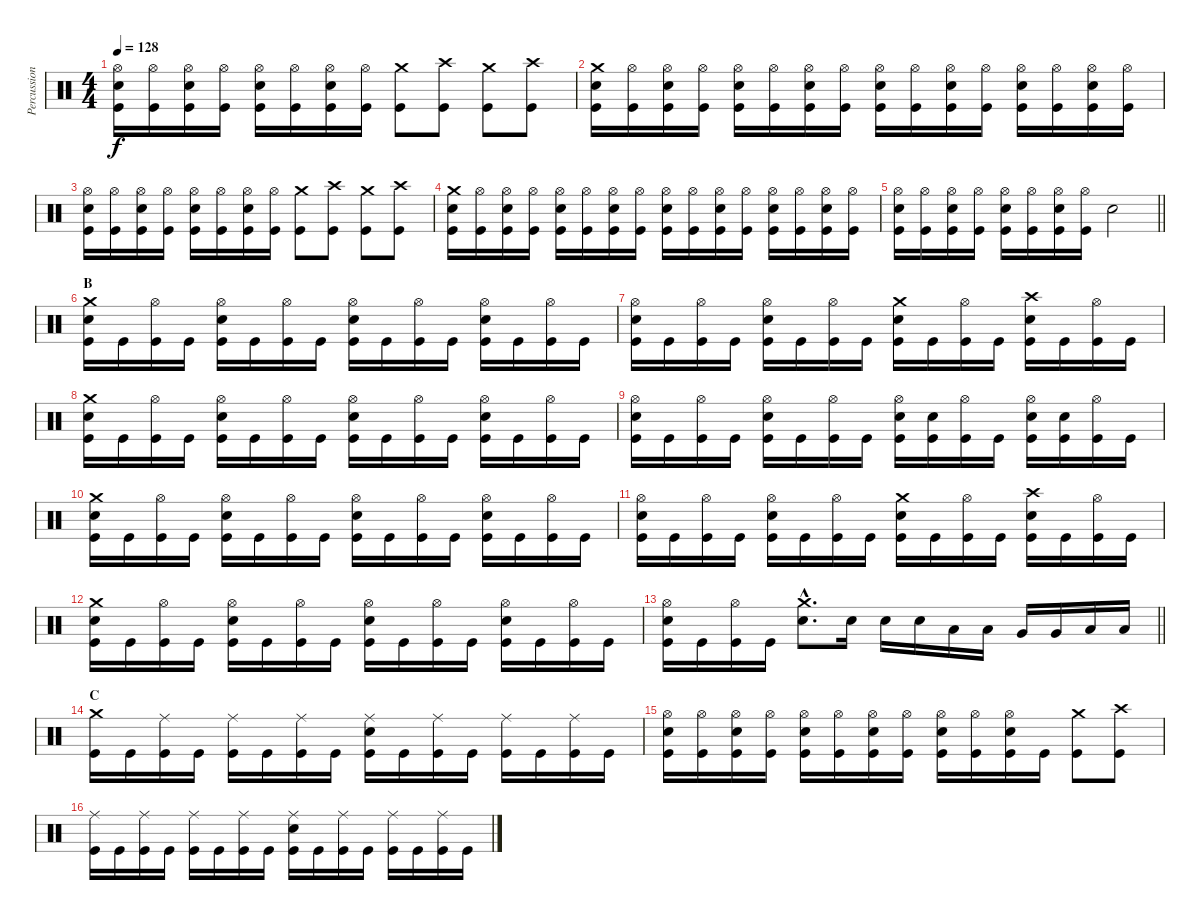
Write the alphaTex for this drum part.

\track ("Percussion" "Percussion") {instrument percussion}
\staff {score}
\articulation defaults
\ts (4 4)
\tempo 128
\clef neutral
\ks c
("Kick (hit)" "Snare (hit) 2" "Hi-Hat (open)").16{dy f} ("Kick (hit)" "Hi-Hat (open)").16 ("Kick (hit)" "Snare (hit) 2" "Hi-Hat (open)").16 ("Kick (hit)" "Hi-Hat (open)").16 ("Kick (hit)" "Snare (hit) 2" "Hi-Hat (open)").16 ("Kick (hit)" "Hi-Hat (open)").16 ("Kick (hit)" "Snare (hit) 2" "Hi-Hat (open)").16 ("Kick (hit)" "Hi-Hat (open)").16 ("Kick (hit)" "Crash medium (hit)").8 ("Kick (hit)" "Crash high (hit)").8 ("Kick (hit)" "Crash medium (hit)").8 ("Kick (hit)" "Crash high (hit)").8 |
("Kick (hit)" "Snare (hit) 2" "Crash medium (hit)").16 ("Kick (hit)" "Hi-Hat (open)").16 ("Kick (hit)" "Snare (hit) 2" "Hi-Hat (open)").16 ("Kick (hit)" "Hi-Hat (open)").16 ("Kick (hit)" "Snare (hit) 2" "Hi-Hat (open)").16 ("Kick (hit)" "Hi-Hat (open)").16 ("Kick (hit)" "Snare (hit) 2" "Hi-Hat (open)").16 ("Kick (hit)" "Hi-Hat (open)").16 ("Kick (hit)" "Snare (hit) 2" "Hi-Hat (open)").16 ("Kick (hit)" "Hi-Hat (open)").16 ("Kick (hit)" "Snare (hit) 2" "Hi-Hat (open)").16 ("Kick (hit)" "Hi-Hat (open)").16 ("Kick (hit)" "Snare (hit) 2" "Hi-Hat (open)").16 ("Kick (hit)" "Hi-Hat (open)").16 ("Kick (hit)" "Snare (hit) 2" "Hi-Hat (open)").16 ("Kick (hit)" "Hi-Hat (open)").16 |
("Kick (hit)" "Snare (hit) 2" "Hi-Hat (open)").16 ("Kick (hit)" "Hi-Hat (open)").16 ("Kick (hit)" "Snare (hit) 2" "Hi-Hat (open)").16 ("Kick (hit)" "Hi-Hat (open)").16 ("Kick (hit)" "Snare (hit) 2" "Hi-Hat (open)").16 ("Kick (hit)" "Hi-Hat (open)").16 ("Kick (hit)" "Snare (hit) 2" "Hi-Hat (open)").16 ("Kick (hit)" "Hi-Hat (open)").16 ("Kick (hit)" "Crash medium (hit)").8 ("Kick (hit)" "Crash high (hit)").8 ("Kick (hit)" "Crash medium (hit)").8 ("Kick (hit)" "Crash high (hit)").8 |
("Kick (hit)" "Snare (hit) 2" "Crash medium (hit)").16 ("Kick (hit)" "Hi-Hat (open)").16 ("Kick (hit)" "Snare (hit) 2" "Hi-Hat (open)").16 ("Kick (hit)" "Hi-Hat (open)").16 ("Kick (hit)" "Snare (hit) 2" "Hi-Hat (open)").16 ("Kick (hit)" "Hi-Hat (open)").16 ("Kick (hit)" "Snare (hit) 2" "Hi-Hat (open)").16 ("Kick (hit)" "Hi-Hat (open)").16 ("Kick (hit)" "Snare (hit) 2" "Hi-Hat (open)").16 ("Kick (hit)" "Hi-Hat (open)").16 ("Kick (hit)" "Snare (hit) 2" "Hi-Hat (open)").16 ("Kick (hit)" "Hi-Hat (open)").16 ("Kick (hit)" "Snare (hit) 2" "Hi-Hat (open)").16 ("Kick (hit)" "Hi-Hat (open)").16 ("Kick (hit)" "Snare (hit) 2" "Hi-Hat (open)").16 ("Kick (hit)" "Hi-Hat (open)").16 |
\barLineRight lightlight
("Kick (hit)" "Snare (hit) 2" "Hi-Hat (open)").16 ("Kick (hit)" "Hi-Hat (open)").16 ("Kick (hit)" "Snare (hit) 2" "Hi-Hat (open)").16 ("Kick (hit)" "Hi-Hat (open)").16 ("Kick (hit)" "Snare (hit) 2" "Hi-Hat (open)").16 ("Kick (hit)" "Hi-Hat (open)").16 ("Kick (hit)" "Snare (hit) 2" "Hi-Hat (open)").16 ("Kick (hit)" "Hi-Hat (open)").16 "Snare (hit) 2".2 |
\section ("" "B")
("Kick (hit)" "Snare (hit) 2" "Crash medium (hit)").16 "Kick (hit)".16 ("Kick (hit)" "Hi-Hat (open)").16 "Kick (hit)".16 ("Kick (hit)" "Snare (hit) 2" "Hi-Hat (open)").16 "Kick (hit)".16 ("Kick (hit)" "Hi-Hat (open)").16 "Kick (hit)".16 ("Kick (hit)" "Snare (hit) 2" "Hi-Hat (open)").16 "Kick (hit)".16 ("Kick (hit)" "Hi-Hat (open)").16 "Kick (hit)".16 ("Kick (hit)" "Snare (hit) 2" "Hi-Hat (open)").16 "Kick (hit)".16 ("Kick (hit)" "Hi-Hat (open)").16 "Kick (hit)".16 |
("Kick (hit)" "Snare (hit) 2" "Hi-Hat (open)").16 "Kick (hit)".16 ("Kick (hit)" "Hi-Hat (open)").16 "Kick (hit)".16 ("Kick (hit)" "Snare (hit) 2" "Hi-Hat (open)").16 "Kick (hit)".16 ("Kick (hit)" "Hi-Hat (open)").16 "Kick (hit)".16 ("Kick (hit)" "Snare (hit) 2" "Crash medium (hit)").16 "Kick (hit)".16 ("Kick (hit)" "Hi-Hat (open)").16 "Kick (hit)".16 ("Kick (hit)" "Snare (hit) 2" "Crash high (hit)").16 "Kick (hit)".16 ("Kick (hit)" "Hi-Hat (open)").16 "Kick (hit)".16 |
("Kick (hit)" "Snare (hit) 2" "Crash medium (hit)").16 "Kick (hit)".16 ("Kick (hit)" "Hi-Hat (open)").16 "Kick (hit)".16 ("Kick (hit)" "Snare (hit) 2" "Hi-Hat (open)").16 "Kick (hit)".16 ("Kick (hit)" "Hi-Hat (open)").16 "Kick (hit)".16 ("Kick (hit)" "Snare (hit) 2" "Hi-Hat (open)").16 "Kick (hit)".16 ("Kick (hit)" "Hi-Hat (open)").16 "Kick (hit)".16 ("Kick (hit)" "Snare (hit) 2" "Hi-Hat (open)").16 "Kick (hit)".16 ("Kick (hit)" "Hi-Hat (open)").16 "Kick (hit)".16 |
("Kick (hit)" "Snare (hit) 2" "Hi-Hat (open)").16 "Kick (hit)".16 ("Kick (hit)" "Hi-Hat (open)").16 "Kick (hit)".16 ("Kick (hit)" "Snare (hit) 2" "Hi-Hat (open)").16 "Kick (hit)".16 ("Kick (hit)" "Hi-Hat (open)").16 "Kick (hit)".16 ("Kick (hit)" "Snare (hit) 2" "Hi-Hat (open)").16 ("Kick (hit)" "Snare (hit) 2").16 ("Kick (hit)" "Hi-Hat (open)").16 "Kick (hit)".16 ("Kick (hit)" "Snare (hit) 2" "Hi-Hat (open)").16 ("Kick (hit)" "Snare (hit) 2").16 ("Kick (hit)" "Hi-Hat (open)").16 "Kick (hit)".16 |
("Kick (hit)" "Snare (hit) 2" "Crash medium (hit)").16 "Kick (hit)".16 ("Kick (hit)" "Hi-Hat (open)").16 "Kick (hit)".16 ("Kick (hit)" "Snare (hit) 2" "Hi-Hat (open)").16 "Kick (hit)".16 ("Kick (hit)" "Hi-Hat (open)").16 "Kick (hit)".16 ("Kick (hit)" "Snare (hit) 2" "Hi-Hat (open)").16 "Kick (hit)".16 ("Kick (hit)" "Hi-Hat (open)").16 "Kick (hit)".16 ("Kick (hit)" "Snare (hit) 2" "Hi-Hat (open)").16 "Kick (hit)".16 ("Kick (hit)" "Hi-Hat (open)").16 "Kick (hit)".16 |
("Kick (hit)" "Snare (hit) 2" "Hi-Hat (open)").16 "Kick (hit)".16 ("Kick (hit)" "Hi-Hat (open)").16 "Kick (hit)".16 ("Kick (hit)" "Snare (hit) 2" "Hi-Hat (open)").16 "Kick (hit)".16 ("Kick (hit)" "Hi-Hat (open)").16 "Kick (hit)".16 ("Kick (hit)" "Snare (hit) 2" "Crash medium (hit)").16 "Kick (hit)".16 ("Kick (hit)" "Hi-Hat (open)").16 "Kick (hit)".16 ("Kick (hit)" "Snare (hit) 2" "Crash high (hit)").16 "Kick (hit)".16 ("Kick (hit)" "Hi-Hat (open)").16 "Kick (hit)".16 |
("Kick (hit)" "Snare (hit) 2" "Crash medium (hit)").16 "Kick (hit)".16 ("Kick (hit)" "Hi-Hat (open)").16 "Kick (hit)".16 ("Kick (hit)" "Snare (hit) 2" "Hi-Hat (open)").16 "Kick (hit)".16 ("Kick (hit)" "Hi-Hat (open)").16 "Kick (hit)".16 ("Kick (hit)" "Snare (hit) 2" "Hi-Hat (open)").16 "Kick (hit)".16 ("Kick (hit)" "Hi-Hat (open)").16 "Kick (hit)".16 ("Kick (hit)" "Snare (hit) 2" "Hi-Hat (open)").16 "Kick (hit)".16 ("Kick (hit)" "Hi-Hat (open)").16 "Kick (hit)".16 |
\barLineRight lightlight
("Kick (hit)" "Snare (hit) 2" "Hi-Hat (open)").16 "Kick (hit)".16 ("Kick (hit)" "Hi-Hat (open)").16 "Kick (hit)".16 ("Snare (hit) 2"{hac} "Crash medium (hit)"{hac}).8{d} "Snare (hit) 2".16 "Snare (hit) 2".16 "Snare (hit) 2".16 "Low Tom (hit)".16 "Low Tom (hit)".16 "Very Low Tom (hit)".16 "Very Low Tom (hit)".16 "Low Floor Tom (hit)".16 "Low Floor Tom (hit)".16 |
\section ("" "C")
("Kick (hit)" "Crash medium (hit)").16 "Kick (hit)".16 ("Kick (hit)" "Ride (middle)").16 "Kick (hit)".16 ("Kick (hit)" "Ride (middle)").16 "Kick (hit)".16 ("Kick (hit)" "Ride (middle)").16 "Kick (hit)".16 ("Kick (hit)" "Snare (hit) 2" "Ride (middle)").16 "Kick (hit)".16 ("Kick (hit)" "Ride (middle)").16 "Kick (hit)".16 ("Kick (hit)" "Ride (middle)").16 "Kick (hit)".16 ("Kick (hit)" "Ride (middle)").16 "Kick (hit)".16 |
("Kick (hit)" "Snare (hit) 2" "Hi-Hat (open)").16 ("Kick (hit)" "Hi-Hat (open)").16 ("Kick (hit)" "Snare (hit) 2" "Hi-Hat (open)").16 ("Kick (hit)" "Hi-Hat (open)").16 ("Kick (hit)" "Snare (hit) 2" "Hi-Hat (open)").16 ("Kick (hit)" "Hi-Hat (open)").16 ("Kick (hit)" "Snare (hit) 2" "Hi-Hat (open)").16 ("Kick (hit)" "Hi-Hat (open)").16 ("Kick (hit)" "Snare (hit) 2" "Hi-Hat (open)").16 ("Kick (hit)" "Hi-Hat (open)").16 ("Kick (hit)" "Snare (hit) 2" "Hi-Hat (open)").16 "Kick (hit)".16 ("Kick (hit)" "Crash medium (hit)").8 ("Kick (hit)" "Crash high (hit)").8 |
("Kick (hit)" "Ride (middle)").16 "Kick (hit)".16 ("Kick (hit)" "Ride (middle)").16 "Kick (hit)".16 ("Kick (hit)" "Ride (middle)").16 "Kick (hit)".16 ("Kick (hit)" "Ride (middle)").16 "Kick (hit)".16 ("Kick (hit)" "Snare (hit) 2" "Ride (middle)").16 "Kick (hit)".16 ("Kick (hit)" "Ride (middle)").16 "Kick (hit)".16 ("Kick (hit)" "Ride (middle)").16 "Kick (hit)".16 ("Kick (hit)" "Ride (middle)").16 "Kick (hit)".16
